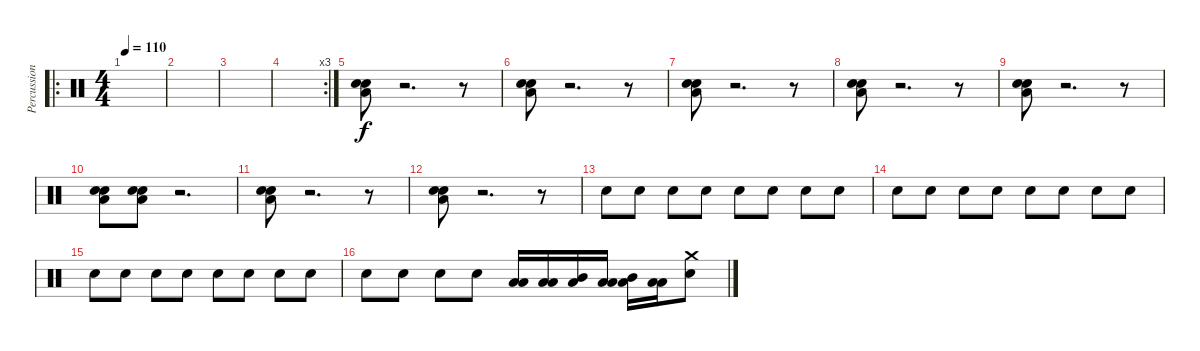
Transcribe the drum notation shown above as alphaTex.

\track ("Percussions" "Percussion") {instrument percussion}
\staff {score}
\articulation defaults
\ro
\ts (4 4)
\tempo 110
\clef neutral
\ks c
|
|
|
\rc 3
|
("Snare (hit) 2" "Low Floor Tom (hit)" "Electric Snare (hit)").8 r.2{d} r.8 |
("Snare (hit) 2" "Low Floor Tom (hit)" "Electric Snare (hit)").8 r.2{d} r.8 |
("Snare (hit) 2" "Low Floor Tom (hit)" "Electric Snare (hit)").8 r.2{d} r.8 |
("Snare (hit) 2" "Low Floor Tom (hit)" "Electric Snare (hit)").8 r.2{d} r.8 |
("Snare (hit) 2" "Low Floor Tom (hit)" "Electric Snare (hit)").8 r.2{d} r.8 |
("Snare (hit) 2" "Low Floor Tom (hit)" "Electric Snare (hit)").8 ("Snare (hit) 2" "Low Floor Tom (hit)" "Electric Snare (hit)").8 r.2{d} |
("Snare (hit) 2" "Low Floor Tom (hit)" "Electric Snare (hit)").8 r.2{d} r.8 |
("Snare (hit) 2" "Low Floor Tom (hit)" "Electric Snare (hit)").8 r.2{d} r.8 |
"Snare (hit) 2".8 "Snare (hit) 2".8 "Snare (hit) 2".8 "Snare (hit) 2".8 "Snare (hit) 2".8 "Snare (hit) 2".8 "Snare (hit) 2".8 "Snare (hit) 2".8 |
"Snare (hit) 2".8 "Snare (hit) 2".8 "Snare (hit) 2".8 "Snare (hit) 2".8 "Snare (hit) 2".8 "Snare (hit) 2".8 "Snare (hit) 2".8 "Snare (hit) 2".8 |
"Snare (hit) 2".8 "Snare (hit) 2".8 "Snare (hit) 2".8 "Snare (hit) 2".8 "Snare (hit) 2".8 "Snare (hit) 2".8 "Snare (hit) 2".8 "Snare (hit) 2".8 |
"Snare (hit) 2".8 "Snare (hit) 2".8 "Snare (hit) 2".8 "Snare (hit) 2".8 ("Low Floor Tom (hit)" "Low Floor Tom (hit)").16 ("Low Floor Tom (hit)" "Low Floor Tom (hit)").16 ("Mid Tom (hit)" "Low Floor Tom (hit)").16 ("Low Floor Tom (hit)" "Low Floor Tom (hit)").16 ("Mid Tom (hit)" "Low Floor Tom (hit)").16 ("Low Floor Tom (hit)" "Low Floor Tom (hit)").16 ("Snare (hit) 2" "Crash medium (hit)").8
